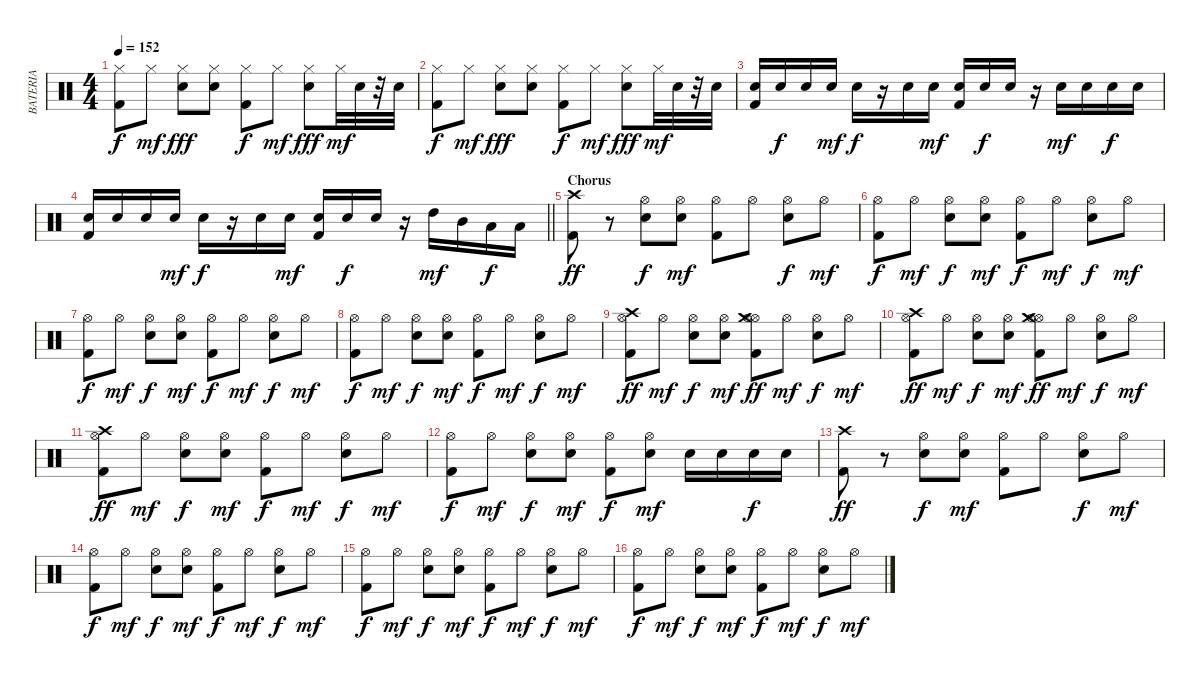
\track ("BATERIA" "BATERIA") {instrument percussion}
\staff {score}
\articulation defaults
\ts (4 4)
\tempo 152
\clef neutral
\ks c
("Kick (hit) 2" "Hi-Hat (closed)").8{dy f} "Hi-Hat (closed)".8{dy mf} ("Hi-Hat (closed)" "Snare (hit) 2").8{dy fff} ("Hi-Hat (closed)" "Snare (hit) 2").8 ("Kick (hit) 2" "Hi-Hat (closed)").8{dy f} "Hi-Hat (closed)".8{dy mf} ("Hi-Hat (closed)" "Snare (hit) 2").8{dy fff} "Hi-Hat (closed)".32{dy mf} "Snare (hit) 2".32 r.32 "Snare (hit) 2".32 |
("Hi-Hat (closed)" "Kick (hit) 2").8{dy f} "Hi-Hat (closed)".8{dy mf} ("Hi-Hat (closed)" "Snare (hit) 2").8{dy fff} ("Hi-Hat (closed)" "Snare (hit) 2").8 ("Hi-Hat (closed)" "Kick (hit) 2").8{dy f} "Hi-Hat (closed)".8{dy mf} ("Hi-Hat (closed)" "Snare (hit) 2").8{dy fff} "Hi-Hat (closed)".32{dy mf} "Snare (hit) 2".32 r.32 "Snare (hit) 2".32 |
("Kick (hit) 2" "Snare (hit) 2").16 "Snare (hit) 2".16{dy f} "Snare (hit) 2".16 "Snare (hit) 2".16{dy mf} "Snare (hit) 2".16{dy f} r.16 "Snare (hit) 2".16 "Snare (hit) 2".16{dy mf} ("Snare (hit) 2" "Kick (hit) 2").16 "Snare (hit) 2".16{dy f} "Snare (hit) 2".16 r.16 "Snare (hit) 2".16{dy mf} "Snare (hit) 2".16 "Snare (hit) 2".16{dy f} "Snare (hit) 2".16 |
\barLineRight lightlight
("Kick (hit) 2" "Snare (hit) 2").16 "Snare (hit) 2".16 "Snare (hit) 2".16 "Snare (hit) 2".16{dy mf} "Snare (hit) 2".16{dy f} r.16 "Snare (hit) 2".16 "Snare (hit) 2".16{dy mf} ("Kick (hit) 2" "Snare (hit) 2").16 "Snare (hit) 2".16{dy f} "Snare (hit) 2".16 r.16 "High Tom (hit)".16{dy mf} "Mid Tom (hit)".16 "Low Tom (hit)".16{dy f} "Low Tom (hit)".16 |
\section ("" "Chorus")
("Kick (hit) 2" "Crash high (hit)").8{dy ff} r.8 ("Snare (hit) 2" "Hi-Hat (open)").8{dy f} ("Snare (hit) 2" "Hi-Hat (open)").8{dy mf} ("Kick (hit) 2" "Hi-Hat (open)").8 "Hi-Hat (open)".8 ("Snare (hit) 2" "Hi-Hat (open)").8{dy f} "Hi-Hat (open)".8{dy mf} |
("Hi-Hat (open)" "Kick (hit) 2").8{dy f} "Hi-Hat (open)".8{dy mf} ("Hi-Hat (open)" "Snare (hit) 2").8{dy f} ("Hi-Hat (open)" "Snare (hit) 2").8{dy mf} ("Hi-Hat (open)" "Kick (hit) 2").8{dy f} "Hi-Hat (open)".8{dy mf} ("Hi-Hat (open)" "Snare (hit) 2").8{dy f} "Hi-Hat (open)".8{dy mf} |
("Hi-Hat (open)" "Kick (hit) 2").8{dy f} "Hi-Hat (open)".8{dy mf} ("Hi-Hat (open)" "Snare (hit) 2").8{dy f} ("Hi-Hat (open)" "Snare (hit) 2").8{dy mf} ("Hi-Hat (open)" "Kick (hit) 2").8{dy f} "Hi-Hat (open)".8{dy mf} ("Hi-Hat (open)" "Snare (hit) 2").8{dy f} "Hi-Hat (open)".8{dy mf} |
("Hi-Hat (open)" "Kick (hit) 2").8{dy f} "Hi-Hat (open)".8{dy mf} ("Snare (hit) 2" "Hi-Hat (open)").8{dy f} ("Snare (hit) 2" "Hi-Hat (open)").8{dy mf} ("Hi-Hat (open)" "Kick (hit) 2").8{dy f} "Hi-Hat (open)".8{dy mf} ("Hi-Hat (open)" "Snare (hit) 2").8{dy f} "Hi-Hat (open)".8{dy mf} |
("Kick (hit) 2" "Crash high (hit)" "Hi-Hat (open)").8{dy ff} "Hi-Hat (open)".8{dy mf} ("Snare (hit) 2" "Hi-Hat (open)").8{dy f} ("Snare (hit) 2" "Hi-Hat (open)").8{dy mf} ("Kick (hit) 2" "Hi-Hat (open)" "Hi-Hat (open)" "Crash medium (hit)").8{dy ff} "Hi-Hat (open)".8{dy mf} ("Snare (hit) 2" "Hi-Hat (open)").8{dy f} "Hi-Hat (open)".8{dy mf} |
("Kick (hit) 2" "Crash high (hit)" "Hi-Hat (open)").8{dy ff} "Hi-Hat (open)".8{dy mf} ("Snare (hit) 2" "Hi-Hat (open)").8{dy f} ("Snare (hit) 2" "Hi-Hat (open)").8{dy mf} ("Kick (hit) 2" "Hi-Hat (open)" "Hi-Hat (open)" "Crash medium (hit)").8{dy ff} "Hi-Hat (open)".8{dy mf} ("Snare (hit) 2" "Hi-Hat (open)").8{dy f} "Hi-Hat (open)".8{dy mf} |
("Kick (hit) 2" "Crash high (hit)" "Hi-Hat (open)").8{dy ff} "Hi-Hat (open)".8{dy mf} ("Snare (hit) 2" "Hi-Hat (open)").8{dy f} ("Snare (hit) 2" "Hi-Hat (open)").8{dy mf} ("Kick (hit) 2" "Hi-Hat (open)").8{dy f} "Hi-Hat (open)".8{dy mf} ("Snare (hit) 2" "Hi-Hat (open)").8{dy f} "Hi-Hat (open)".8{dy mf} |
("Hi-Hat (open)" "Kick (hit) 2").8{dy f} "Hi-Hat (open)".8{dy mf} ("Snare (hit) 2" "Hi-Hat (open)").8{dy f} ("Snare (hit) 2" "Hi-Hat (open)").8{dy mf} ("Kick (hit) 2" "Hi-Hat (open)").8{dy f} ("Snare (hit) 2" "Hi-Hat (open)").8{dy mf} "Snare (hit) 2".16 "Snare (hit) 2".16 "Snare (hit) 2".16{dy f} "Snare (hit) 2".16 |
("Kick (hit) 2" "Crash high (hit)").8{dy ff} r.8 ("Snare (hit) 2" "Hi-Hat (open)").8{dy f} ("Snare (hit) 2" "Hi-Hat (open)").8{dy mf} ("Kick (hit) 2" "Hi-Hat (open)").8 "Hi-Hat (open)".8 ("Snare (hit) 2" "Hi-Hat (open)").8{dy f} "Hi-Hat (open)".8{dy mf} |
("Hi-Hat (open)" "Kick (hit) 2").8{dy f} "Hi-Hat (open)".8{dy mf} ("Hi-Hat (open)" "Snare (hit) 2").8{dy f} ("Hi-Hat (open)" "Snare (hit) 2").8{dy mf} ("Hi-Hat (open)" "Kick (hit) 2").8{dy f} "Hi-Hat (open)".8{dy mf} ("Hi-Hat (open)" "Snare (hit) 2").8{dy f} "Hi-Hat (open)".8{dy mf} |
("Hi-Hat (open)" "Kick (hit) 2").8{dy f} "Hi-Hat (open)".8{dy mf} ("Hi-Hat (open)" "Snare (hit) 2").8{dy f} ("Hi-Hat (open)" "Snare (hit) 2").8{dy mf} ("Hi-Hat (open)" "Kick (hit) 2").8{dy f} "Hi-Hat (open)".8{dy mf} ("Hi-Hat (open)" "Snare (hit) 2").8{dy f} "Hi-Hat (open)".8{dy mf} |
("Hi-Hat (open)" "Kick (hit) 2").8{dy f} "Hi-Hat (open)".8{dy mf} ("Snare (hit) 2" "Hi-Hat (open)").8{dy f} ("Snare (hit) 2" "Hi-Hat (open)").8{dy mf} ("Hi-Hat (open)" "Kick (hit) 2").8{dy f} "Hi-Hat (open)".8{dy mf} ("Hi-Hat (open)" "Snare (hit) 2").8{dy f} "Hi-Hat (open)".8{dy mf}
